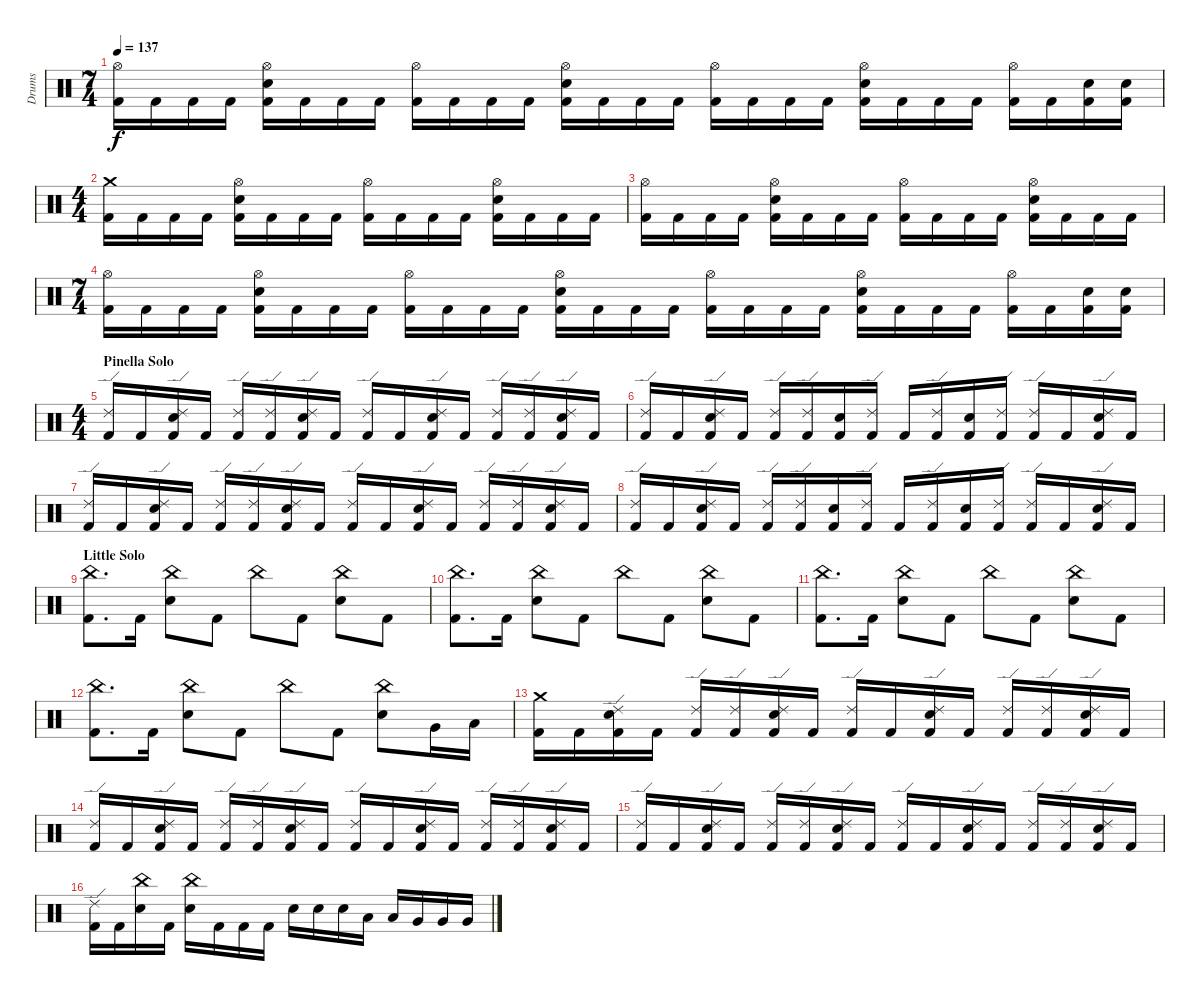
\track ("Drums" "Drums") {instrument percussion}
\staff {score}
\articulation defaults
\ts (7 4)
\tempo 137
\clef neutral
\ks c
("Hi-Hat (open)" "Kick (hit) 2").16{dy f} "Kick (hit) 2".16 "Kick (hit) 2".16 "Kick (hit) 2".16 ("Electric Snare (hit)" "Hi-Hat (open)" "Kick (hit) 2").16 "Kick (hit) 2".16 "Kick (hit) 2".16 "Kick (hit) 2".16 ("Hi-Hat (open)" "Kick (hit) 2").16 "Kick (hit) 2".16 "Kick (hit) 2".16 "Kick (hit) 2".16 ("Electric Snare (hit)" "Hi-Hat (open)" "Kick (hit) 2").16 "Kick (hit) 2".16 "Kick (hit) 2".16 "Kick (hit) 2".16 ("Hi-Hat (open)" "Kick (hit) 2").16 "Kick (hit) 2".16 "Kick (hit) 2".16 "Kick (hit) 2".16 ("Electric Snare (hit)" "Hi-Hat (open)" "Kick (hit) 2").16 "Kick (hit) 2".16 "Kick (hit) 2".16 "Kick (hit) 2".16 ("Hi-Hat (open)" "Kick (hit) 2").16 "Kick (hit) 2".16 ("Electric Snare (hit)" "Kick (hit) 2").16 ("Electric Snare (hit)" "Kick (hit) 2").16 |
\ts (4 4)
("Crash medium (hit)" "Kick (hit) 2").16 "Kick (hit) 2".16 "Kick (hit) 2".16 "Kick (hit) 2".16 ("Electric Snare (hit)" "Hi-Hat (open)" "Kick (hit) 2").16 "Kick (hit) 2".16 "Kick (hit) 2".16 "Kick (hit) 2".16 ("Hi-Hat (open)" "Kick (hit) 2").16 "Kick (hit) 2".16 "Kick (hit) 2".16 "Kick (hit) 2".16 ("Electric Snare (hit)" "Hi-Hat (open)" "Kick (hit) 2").16 "Kick (hit) 2".16 "Kick (hit) 2".16 "Kick (hit) 2".16 |
("Hi-Hat (open)" "Kick (hit) 2").16 "Kick (hit) 2".16 "Kick (hit) 2".16 "Kick (hit) 2".16 ("Electric Snare (hit)" "Hi-Hat (open)" "Kick (hit) 2").16 "Kick (hit) 2".16 "Kick (hit) 2".16 "Kick (hit) 2".16 ("Hi-Hat (open)" "Kick (hit) 2").16 "Kick (hit) 2".16 "Kick (hit) 2".16 "Kick (hit) 2".16 ("Electric Snare (hit)" "Hi-Hat (open)" "Kick (hit) 2").16 "Kick (hit) 2".16 "Kick (hit) 2".16 "Kick (hit) 2".16 |
\ts (7 4)
("Hi-Hat (open)" "Kick (hit) 2").16 "Kick (hit) 2".16 "Kick (hit) 2".16 "Kick (hit) 2".16 ("Electric Snare (hit)" "Hi-Hat (open)" "Kick (hit) 2").16 "Kick (hit) 2".16 "Kick (hit) 2".16 "Kick (hit) 2".16 ("Hi-Hat (open)" "Kick (hit) 2").16 "Kick (hit) 2".16 "Kick (hit) 2".16 "Kick (hit) 2".16 ("Electric Snare (hit)" "Hi-Hat (open)" "Kick (hit) 2").16 "Kick (hit) 2".16 "Kick (hit) 2".16 "Kick (hit) 2".16 ("Hi-Hat (open)" "Kick (hit) 2").16 "Kick (hit) 2".16 "Kick (hit) 2".16 "Kick (hit) 2".16 ("Electric Snare (hit)" "Hi-Hat (open)" "Kick (hit) 2").16 "Kick (hit) 2".16 "Kick (hit) 2".16 "Kick (hit) 2".16 ("Hi-Hat (open)" "Kick (hit) 2").16 "Kick (hit) 2".16 ("Electric Snare (hit)" "Kick (hit) 2").16 ("Electric Snare (hit)" "Kick (hit) 2").16 |
\ts (4 4)
\section ("" "Pinella Solo")
("Ride (edge) 2" "Kick (hit) 2").16 "Kick (hit) 2".16 ("Ride (edge) 2" "Electric Snare (hit)" "Kick (hit) 2").16 "Kick (hit) 2".16 ("Ride (edge) 2" "Kick (hit) 2").16 ("Ride (edge) 2" "Kick (hit) 2").16 ("Ride (edge) 2" "Electric Snare (hit)" "Kick (hit) 2").16 "Kick (hit) 2".16 ("Ride (edge) 2" "Kick (hit) 2").16 "Kick (hit) 2".16 ("Ride (edge) 2" "Electric Snare (hit)" "Kick (hit) 2").16 "Kick (hit) 2".16 ("Ride (edge) 2" "Kick (hit) 2").16 ("Ride (edge) 2" "Kick (hit) 2").16 ("Ride (edge) 2" "Electric Snare (hit)" "Kick (hit) 2").16 "Kick (hit) 2".16 |
("Ride (edge) 2" "Kick (hit) 2").16 "Kick (hit) 2".16 ("Ride (edge) 2" "Electric Snare (hit)" "Kick (hit) 2").16 "Kick (hit) 2".16 ("Ride (edge) 2" "Kick (hit) 2").16 ("Ride (edge) 2" "Kick (hit) 2").16 ("Electric Snare (hit)" "Kick (hit) 2").16 ("Ride (edge) 2" "Kick (hit) 2").16 "Kick (hit) 2".16 ("Ride (edge) 2" "Kick (hit) 2").16 ("Electric Snare (hit)" "Kick (hit) 2").16 ("Ride (edge) 2" "Kick (hit) 2").16 ("Ride (edge) 2" "Kick (hit) 2").16 "Kick (hit) 2".16 ("Ride (edge) 2" "Electric Snare (hit)" "Kick (hit) 2").16 "Kick (hit) 2".16 |
("Ride (edge) 2" "Kick (hit) 2").16 "Kick (hit) 2".16 ("Ride (edge) 2" "Electric Snare (hit)" "Kick (hit) 2").16 "Kick (hit) 2".16 ("Ride (edge) 2" "Kick (hit) 2").16 ("Ride (edge) 2" "Kick (hit) 2").16 ("Ride (edge) 2" "Electric Snare (hit)" "Kick (hit) 2").16 "Kick (hit) 2".16 ("Ride (edge) 2" "Kick (hit) 2").16 "Kick (hit) 2".16 ("Ride (edge) 2" "Electric Snare (hit)" "Kick (hit) 2").16 "Kick (hit) 2".16 ("Ride (edge) 2" "Kick (hit) 2").16 ("Ride (edge) 2" "Kick (hit) 2").16 ("Ride (edge) 2" "Electric Snare (hit)" "Kick (hit) 2").16 "Kick (hit) 2".16 |
("Ride (edge) 2" "Kick (hit) 2").16 "Kick (hit) 2".16 ("Ride (edge) 2" "Electric Snare (hit)" "Kick (hit) 2").16 "Kick (hit) 2".16 ("Ride (edge) 2" "Kick (hit) 2").16 ("Ride (edge) 2" "Kick (hit) 2").16 ("Electric Snare (hit)" "Kick (hit) 2").16 ("Ride (edge) 2" "Kick (hit) 2").16 "Kick (hit) 2".16 ("Ride (edge) 2" "Kick (hit) 2").16 ("Electric Snare (hit)" "Kick (hit) 2").16 ("Ride (edge) 2" "Kick (hit) 2").16 ("Ride (edge) 2" "Kick (hit) 2").16 "Kick (hit) 2".16 ("Ride (edge) 2" "Electric Snare (hit)" "Kick (hit) 2").16 "Kick (hit) 2".16 |
\section ("" "Little Solo")
("China (hit)" "Kick (hit) 2").8{d} "Kick (hit) 2".16 ("China (hit)" "Electric Snare (hit)").8 "Kick (hit) 2".8 "China (hit)".8 "Kick (hit) 2".8 ("China (hit)" "Electric Snare (hit)").8 "Kick (hit) 2".8 |
("China (hit)" "Kick (hit) 2").8{d} "Kick (hit) 2".16 ("China (hit)" "Electric Snare (hit)").8 "Kick (hit) 2".8 "China (hit)".8 "Kick (hit) 2".8 ("China (hit)" "Electric Snare (hit)").8 "Kick (hit) 2".8 |
("China (hit)" "Kick (hit) 2").8{d} "Kick (hit) 2".16 ("China (hit)" "Electric Snare (hit)").8 "Kick (hit) 2".8 "China (hit)".8 "Kick (hit) 2".8 ("China (hit)" "Electric Snare (hit)").8 "Kick (hit) 2".8 |
("China (hit)" "Kick (hit) 2").8{d} "Kick (hit) 2".16 ("China (hit)" "Electric Snare (hit)").8 "Kick (hit) 2".8 "China (hit)".8 "Kick (hit) 2".8 ("China (hit)" "Electric Snare (hit)").8 "Very Low Tom (hit)".16 "Low Floor Tom (hit)".16 |
("Crash medium (hit)" "Kick (hit) 2").16 "Kick (hit) 2".16 ("Ride (edge) 2" "Electric Snare (hit)" "Kick (hit) 2").16 "Kick (hit) 2".16 ("Ride (edge) 2" "Kick (hit) 2").16 ("Ride (edge) 2" "Kick (hit) 2").16 ("Ride (edge) 2" "Electric Snare (hit)" "Kick (hit) 2").16 "Kick (hit) 2".16 ("Ride (edge) 2" "Kick (hit) 2").16 "Kick (hit) 2".16 ("Ride (edge) 2" "Electric Snare (hit)" "Kick (hit) 2").16 "Kick (hit) 2".16 ("Ride (edge) 2" "Kick (hit) 2").16 ("Ride (edge) 2" "Kick (hit) 2").16 ("Ride (edge) 2" "Electric Snare (hit)" "Kick (hit) 2").16 "Kick (hit) 2".16 |
("Ride (edge) 2" "Kick (hit) 2").16 "Kick (hit) 2".16 ("Ride (edge) 2" "Electric Snare (hit)" "Kick (hit) 2").16 "Kick (hit) 2".16 ("Ride (edge) 2" "Kick (hit) 2").16 ("Ride (edge) 2" "Kick (hit) 2").16 ("Ride (edge) 2" "Electric Snare (hit)" "Kick (hit) 2").16 "Kick (hit) 2".16 ("Ride (edge) 2" "Kick (hit) 2").16 "Kick (hit) 2".16 ("Ride (edge) 2" "Electric Snare (hit)" "Kick (hit) 2").16 "Kick (hit) 2".16 ("Ride (edge) 2" "Kick (hit) 2").16 ("Ride (edge) 2" "Kick (hit) 2").16 ("Ride (edge) 2" "Electric Snare (hit)" "Kick (hit) 2").16 "Kick (hit) 2".16 |
("Ride (edge) 2" "Kick (hit) 2").16 "Kick (hit) 2".16 ("Ride (edge) 2" "Electric Snare (hit)" "Kick (hit) 2").16 "Kick (hit) 2".16 ("Ride (edge) 2" "Kick (hit) 2").16 ("Ride (edge) 2" "Kick (hit) 2").16 ("Ride (edge) 2" "Electric Snare (hit)" "Kick (hit) 2").16 "Kick (hit) 2".16 ("Ride (edge) 2" "Kick (hit) 2").16 "Kick (hit) 2".16 ("Ride (edge) 2" "Electric Snare (hit)" "Kick (hit) 2").16 "Kick (hit) 2".16 ("Ride (edge) 2" "Kick (hit) 2").16 ("Ride (edge) 2" "Kick (hit) 2").16 ("Ride (edge) 2" "Electric Snare (hit)" "Kick (hit) 2").16 "Kick (hit) 2".16 |
("Ride (edge) 2" "Kick (hit) 2").16 "Kick (hit) 2".16 ("China (hit)" "Electric Snare (hit)").16 "Kick (hit) 2".16 ("China (hit)" "Electric Snare (hit)").16 "Kick (hit) 2".16 "Kick (hit) 2".16 "Kick (hit) 2".16 "Electric Snare (hit)".16 "Electric Snare (hit)".16 "Electric Snare (hit)".16 "Low Tom (hit)".16 "Low Tom (hit)".16 "Very Low Tom (hit)".16 "Very Low Tom (hit)".16 "Very Low Tom (hit)".16
